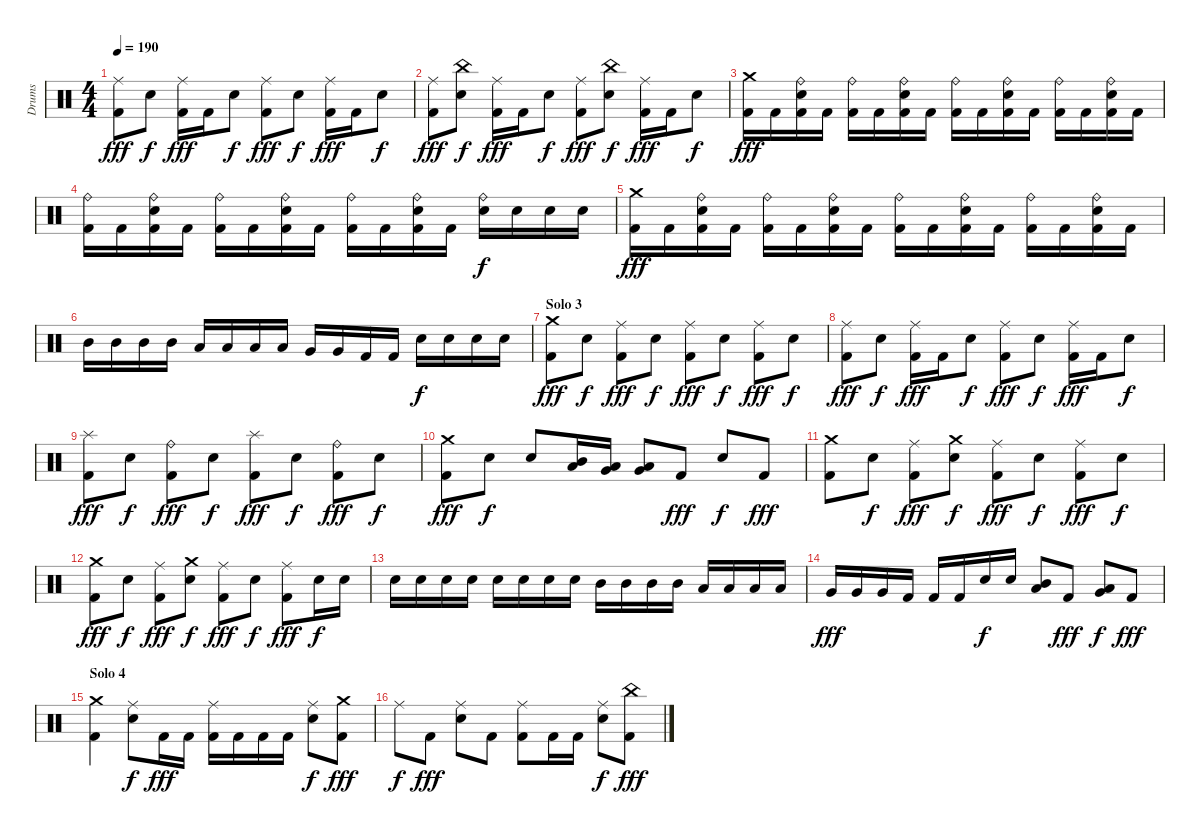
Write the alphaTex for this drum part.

\track ("Drums" "Drums") {instrument percussion}
\staff {score}
\articulation defaults
\ts (4 4)
\tempo 190
\clef neutral
\ks c
("Ride (middle)" "Kick (hit) 2").8{dy fff} "Snare (hit) 2".8{dy f} ("Ride (middle)" "Kick (hit) 2").16{dy fff} "Kick (hit) 2".16 "Snare (hit) 2".8{dy f} ("Ride (middle)" "Kick (hit) 2").8{dy fff} "Snare (hit) 2".8{dy f} ("Ride (middle)" "Kick (hit) 2").16{dy fff} "Kick (hit) 2".16 "Snare (hit) 2".8{dy f} |
("Ride (middle)" "Kick (hit) 2").8{dy fff} ("China (hit)" "Snare (hit) 2").8{dy f} ("Ride (middle)" "Kick (hit) 2").16{dy fff} "Kick (hit) 2".16 "Snare (hit) 2".8{dy f} ("Ride (middle)" "Kick (hit) 2").8{dy fff} ("China (hit)" "Snare (hit) 2").8{dy f} ("Ride (middle)" "Kick (hit) 2").16{dy fff} "Kick (hit) 2".16 "Snare (hit) 2".8{dy f} |
("Crash medium (hit)" "Kick (hit) 2").16{dy fff} "Kick (hit) 2".16 ("Ride (bell)" "Snare (hit) 2" "Kick (hit) 2").16 "Kick (hit) 2".16 ("Ride (bell)" "Kick (hit) 2").16 "Kick (hit) 2".16 ("Ride (bell)" "Snare (hit) 2" "Kick (hit) 2").16 "Kick (hit) 2".16 ("Ride (bell)" "Kick (hit) 2").16 "Kick (hit) 2".16 ("Ride (bell)" "Snare (hit) 2" "Kick (hit) 2").16 "Kick (hit) 2".16 ("Ride (bell)" "Kick (hit) 2").16 "Kick (hit) 2".16 ("Ride (bell)" "Snare (hit) 2" "Kick (hit) 2").16 "Kick (hit) 2".16 |
("Ride (bell)" "Kick (hit) 2").16 "Kick (hit) 2".16 ("Ride (bell)" "Snare (hit) 2" "Kick (hit) 2").16 "Kick (hit) 2".16 ("Ride (bell)" "Kick (hit) 2").16 "Kick (hit) 2".16 ("Ride (bell)" "Snare (hit) 2" "Kick (hit) 2").16 "Kick (hit) 2".16 ("Ride (bell)" "Kick (hit) 2").16 "Kick (hit) 2".16 ("Ride (bell)" "Snare (hit) 2" "Kick (hit) 2").16 "Kick (hit) 2".16 ("Ride (bell)" "Snare (hit) 2").16{dy f} "Snare (hit) 2".16 "Snare (hit) 2".16 "Snare (hit) 2".16 |
("Crash medium (hit)" "Kick (hit) 2").16{dy fff} "Kick (hit) 2".16 ("Ride (bell)" "Snare (hit) 2" "Kick (hit) 2").16 "Kick (hit) 2".16 ("Ride (bell)" "Kick (hit) 2").16 "Kick (hit) 2".16 ("Ride (bell)" "Snare (hit) 2" "Kick (hit) 2").16 "Kick (hit) 2".16 ("Ride (bell)" "Kick (hit) 2").16 "Kick (hit) 2".16 ("Ride (bell)" "Snare (hit) 2" "Kick (hit) 2").16 "Kick (hit) 2".16 ("Ride (bell)" "Kick (hit) 2").16 "Kick (hit) 2".16 ("Ride (bell)" "Snare (hit) 2" "Kick (hit) 2").16 "Kick (hit) 2".16 |
"Mid Tom (hit)".16 "Mid Tom (hit)".16 "Mid Tom (hit)".16 "Mid Tom (hit)".16 "Low Tom (hit)".16 "Low Tom (hit)".16 "Low Tom (hit)".16 "Low Tom (hit)".16 "Very Low Tom (hit)".16 "Very Low Tom (hit)".16 "Kick (hit) 2".16 "Kick (hit) 2".16 "Snare (hit) 2".16{dy f} "Snare (hit) 2".16 "Snare (hit) 2".16 "Snare (hit) 2".16 |
\section ("" "Solo 3")
("Crash medium (hit)" "Kick (hit) 2").8{dy fff} "Snare (hit) 2".8{dy f} ("Ride (middle)" "Kick (hit) 2").8{dy fff} "Snare (hit) 2".8{dy f} ("Ride (middle)" "Kick (hit) 2").8{dy fff} "Snare (hit) 2".8{dy f} ("Ride (middle)" "Kick (hit) 2").8{dy fff} "Snare (hit) 2".8{dy f} |
("Ride (middle)" "Kick (hit) 2").8{dy fff} "Snare (hit) 2".8{dy f} ("Ride (middle)" "Kick (hit) 2").16{dy fff} "Kick (hit) 2".16 "Snare (hit) 2".8{dy f} ("Ride (middle)" "Kick (hit) 2").8{dy fff} "Snare (hit) 2".8{dy f} ("Ride (middle)" "Kick (hit) 2").16{dy fff} "Kick (hit) 2".16 "Snare (hit) 2".8{dy f} |
("Splash (hit)" "Kick (hit) 2").8{dy fff} "Snare (hit) 2".8{dy f} ("Ride (bell)" "Kick (hit) 2").8{dy fff} "Snare (hit) 2".8{dy f} ("Splash (hit)" "Kick (hit) 2").8{dy fff} "Snare (hit) 2".8{dy f} ("Ride (bell)" "Kick (hit) 2").8{dy fff} "Snare (hit) 2".8{dy f} |
("Crash medium (hit)" "Kick (hit) 2").8{dy fff} "Snare (hit) 2".8{dy f} "Snare (hit) 2".8 ("Mid Tom (hit)" "Low Tom (hit)").16 ("Low Tom (hit)" "Very Low Tom (hit)").16 ("Low Tom (hit)" "Very Low Tom (hit)").8 "Kick (hit) 2".8{dy fff} "Snare (hit) 2".8{dy f} "Kick (hit) 2".8{dy fff} |
("Crash medium (hit)" "Kick (hit) 2").8 "Snare (hit) 2".8{dy f} ("Ride (middle)" "Kick (hit) 2").8{dy fff} ("Crash medium (hit)" "Snare (hit) 2").8{dy f} ("Ride (middle)" "Kick (hit) 2").8{dy fff} "Snare (hit) 2".8{dy f} ("Ride (middle)" "Kick (hit) 2").8{dy fff} "Snare (hit) 2".8{dy f} |
("Crash medium (hit)" "Kick (hit) 2").8{dy fff} "Snare (hit) 2".8{dy f} ("Ride (middle)" "Kick (hit) 2").8{dy fff} ("Crash medium (hit)" "Snare (hit) 2").8{dy f} ("Ride (middle)" "Kick (hit) 2").8{dy fff} "Snare (hit) 2".8{dy f} ("Ride (middle)" "Kick (hit) 2").8{dy fff} "Snare (hit) 2".16{dy f} "Snare (hit) 2".16 |
"Snare (hit) 2".16 "Snare (hit) 2".16 "Snare (hit) 2".16 "Snare (hit) 2".16 "Snare (hit) 2".16 "Snare (hit) 2".16 "Snare (hit) 2".16 "Snare (hit) 2".16 "Mid Tom (hit)".16 "Mid Tom (hit)".16 "Mid Tom (hit)".16 "Mid Tom (hit)".16 "Low Tom (hit)".16 "Low Tom (hit)".16 "Low Tom (hit)".16 "Low Tom (hit)".16 |
"Very Low Tom (hit)".16{dy fff} "Very Low Tom (hit)".16 "Very Low Tom (hit)".16 "Kick (hit) 2".16 "Kick (hit) 2".16 "Kick (hit) 2".16 "Snare (hit) 2".16{dy f} "Snare (hit) 2".16 ("Mid Tom (hit)" "Low Tom (hit)").8 "Kick (hit) 2".8{dy fff} ("Low Tom (hit)" "Very Low Tom (hit)").8{dy f} "Kick (hit) 2".8{dy fff} |
\section ("" "Solo 4")
("Crash medium (hit)" "Kick (hit) 2").4 ("Ride (middle)" "Snare (hit) 2").8{dy f} "Kick (hit) 2".16{dy fff} "Kick (hit) 2".16 ("Ride (middle)" "Kick (hit) 2").16 "Kick (hit) 2".16 "Kick (hit) 2".16 "Kick (hit) 2".16 ("Ride (middle)" "Snare (hit) 2").8{dy f} ("Crash medium (hit)" "Kick (hit) 2").8{dy fff} |
"Ride (middle)".8{dy f} "Kick (hit) 2".8{dy fff} ("Ride (middle)" "Snare (hit) 2").8 "Kick (hit) 2".8 ("Ride (middle)" "Kick (hit) 2").8 "Kick (hit) 2".16 "Kick (hit) 2".16 ("Ride (middle)" "Snare (hit) 2").8{dy f} ("China (hit)" "Kick (hit) 2").8{dy fff}
